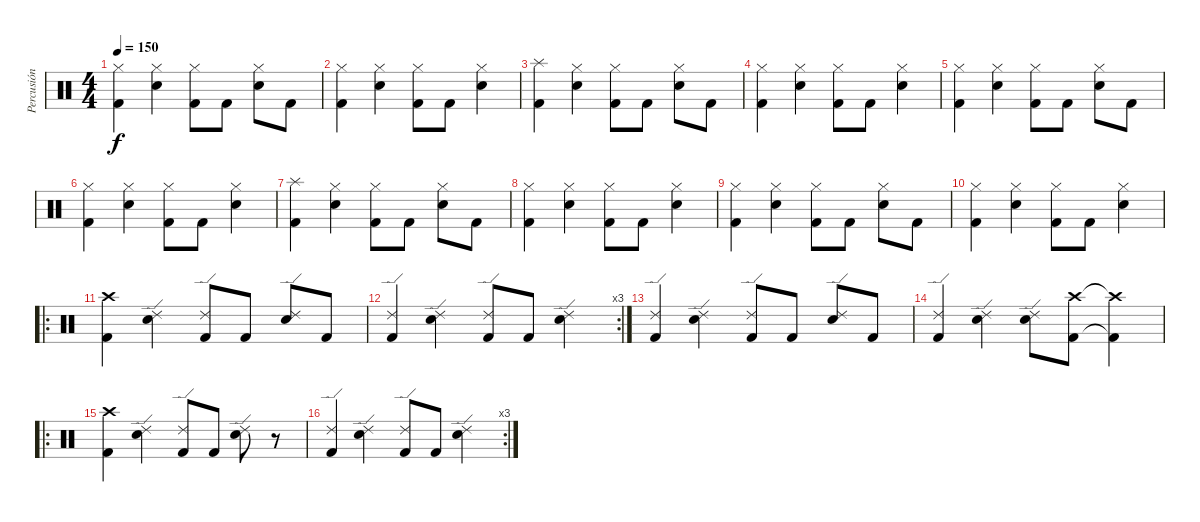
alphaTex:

\track ("Percusión" "Percusión") {instrument percussion}
\staff {score}
\articulation defaults
\ts (4 4)
\tempo 150
\clef neutral
\ks c
("Hi-Hat (closed)" "Kick (hit) 2").4{dy f} ("Hi-Hat (closed)" "Electric Snare (hit)").4 ("Hi-Hat (closed)" "Kick (hit) 2").8 "Kick (hit) 2".8 ("Hi-Hat (closed)" "Electric Snare (hit)").8 "Kick (hit) 2".8 |
("Hi-Hat (closed)" "Kick (hit) 2").4 ("Hi-Hat (closed)" "Electric Snare (hit)").4 ("Hi-Hat (closed)" "Kick (hit) 2").8 "Kick (hit) 2".8 ("Hi-Hat (closed)" "Electric Snare (hit)").4 |
("Splash (hit)" "Kick (hit) 2").4 ("Hi-Hat (closed)" "Electric Snare (hit)").4 ("Hi-Hat (closed)" "Kick (hit) 2").8 "Kick (hit) 2".8 ("Hi-Hat (closed)" "Electric Snare (hit)").8 "Kick (hit) 2".8 |
("Hi-Hat (closed)" "Kick (hit) 2").4 ("Hi-Hat (closed)" "Electric Snare (hit)").4 ("Hi-Hat (closed)" "Kick (hit) 2").8 "Kick (hit) 2".8 ("Hi-Hat (closed)" "Electric Snare (hit)").4 |
("Hi-Hat (closed)" "Kick (hit) 2").4 ("Hi-Hat (closed)" "Electric Snare (hit)").4 ("Hi-Hat (closed)" "Kick (hit) 2").8 "Kick (hit) 2".8 ("Hi-Hat (closed)" "Electric Snare (hit)").8 "Kick (hit) 2".8 |
("Hi-Hat (closed)" "Kick (hit) 2").4 ("Hi-Hat (closed)" "Electric Snare (hit)").4 ("Hi-Hat (closed)" "Kick (hit) 2").8 "Kick (hit) 2".8 ("Hi-Hat (closed)" "Electric Snare (hit)").4 |
("Splash (hit)" "Kick (hit) 2").4 ("Hi-Hat (closed)" "Electric Snare (hit)").4 ("Hi-Hat (closed)" "Kick (hit) 2").8 "Kick (hit) 2".8 ("Hi-Hat (closed)" "Electric Snare (hit)").8 "Kick (hit) 2".8 |
("Hi-Hat (closed)" "Kick (hit) 2").4 ("Hi-Hat (closed)" "Electric Snare (hit)").4 ("Hi-Hat (closed)" "Kick (hit) 2").8 "Kick (hit) 2".8 ("Hi-Hat (closed)" "Electric Snare (hit)").4 |
("Hi-Hat (closed)" "Kick (hit) 2").4 ("Hi-Hat (closed)" "Electric Snare (hit)").4 ("Hi-Hat (closed)" "Kick (hit) 2").8 "Kick (hit) 2".8 ("Hi-Hat (closed)" "Electric Snare (hit)").8 "Kick (hit) 2".8 |
("Hi-Hat (closed)" "Kick (hit) 2").4 ("Hi-Hat (closed)" "Electric Snare (hit)").4 ("Hi-Hat (closed)" "Kick (hit) 2").8 "Kick (hit) 2".8 ("Hi-Hat (closed)" "Electric Snare (hit)").4 |
\ro
("Crash high (hit)" "Kick (hit) 2").4 ("Ride (edge) 2" "Electric Snare (hit)").4 ("Ride (edge) 2" "Kick (hit) 2").8 "Kick (hit) 2".8 ("Ride (edge) 2" "Electric Snare (hit)").8 "Kick (hit) 2".8 |
\rc 3
("Ride (edge) 2" "Kick (hit) 2").4 ("Ride (edge) 2" "Electric Snare (hit)").4 ("Ride (edge) 2" "Kick (hit) 2").8 "Kick (hit) 2".8 ("Ride (edge) 2" "Electric Snare (hit)").4 |
("Ride (edge) 2" "Kick (hit) 2").4 ("Ride (edge) 2" "Electric Snare (hit)").4 ("Ride (edge) 2" "Kick (hit) 2").8 "Kick (hit) 2".8 ("Ride (edge) 2" "Electric Snare (hit)").8 "Kick (hit) 2".8 |
("Ride (edge) 2" "Kick (hit) 2").4 ("Ride (edge) 2" "Electric Snare (hit)").4 ("Ride (edge) 2" "Electric Snare (hit)").8 ("Crash high (hit)" "Kick (hit) 2").8 ("Crash high (hit)"{t} "Kick (hit) 2"{t}).4 |
\ro
("Crash high (hit)" "Kick (hit) 2").4 ("Ride (edge) 2" "Electric Snare (hit)").4 ("Ride (edge) 2" "Kick (hit) 2").8 "Kick (hit) 2".8 ("Ride (edge) 2" "Electric Snare (hit)").8 r.8 |
\rc 3
("Ride (edge) 2" "Kick (hit) 2").4 ("Ride (edge) 2" "Electric Snare (hit)").4 ("Ride (edge) 2" "Kick (hit) 2").8 "Kick (hit) 2".8 ("Ride (edge) 2" "Electric Snare (hit)").4
